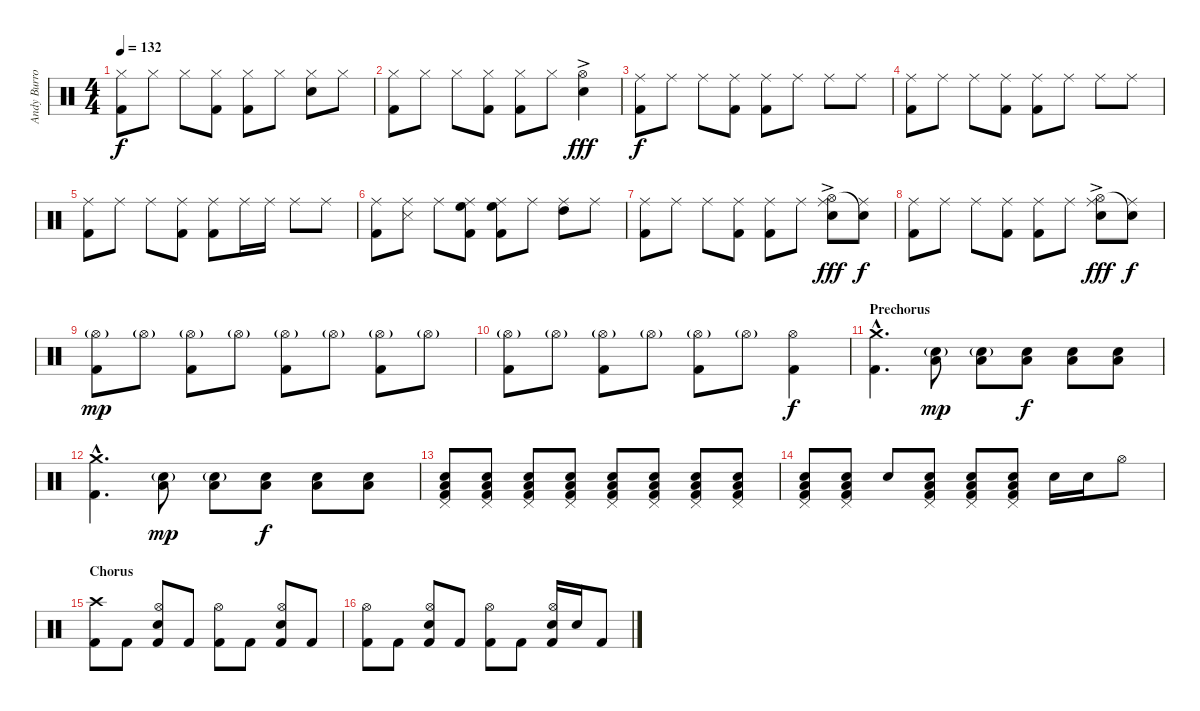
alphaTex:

\track ("Andy Burrows" "Andy Burro") {instrument percussion}
\staff {score}
\articulation defaults
\ts (4 4)
\tempo 132
\clef neutral
\ks c
("Hi-Hat (closed)" "Kick (hit) 2").8{dy f} "Hi-Hat (closed)".8 "Hi-Hat (closed)".8 ("Hi-Hat (closed)" "Kick (hit) 2").8 ("Hi-Hat (closed)" "Kick (hit) 2").8 "Hi-Hat (closed)".8 ("Hi-Hat (closed)" "Electric Snare (hit)").8 "Hi-Hat (closed)".8 |
("Hi-Hat (closed)" "Kick (hit) 2").8 "Hi-Hat (closed)".8 "Hi-Hat (closed)".8 ("Hi-Hat (closed)" "Kick (hit) 2").8 ("Hi-Hat (closed)" "Kick (hit) 2").8 "Hi-Hat (closed)".8 ("Hi-Hat (open)"{ac} "Snare (hit) 2"{ac}).4{dy fff} |
("Ride (middle)" "Kick (hit) 2").8{dy f} "Ride (middle)".8 "Ride (middle)".8 ("Ride (middle)" "Kick (hit) 2").8 ("Ride (middle)" "Kick (hit) 2").8 "Ride (middle)".8 "Ride (middle)".8 "Ride (middle)".8 |
("Ride (middle)" "Kick (hit) 2").8 "Ride (middle)".8 "Ride (middle)".8 ("Ride (middle)" "Kick (hit) 2").8 ("Ride (middle)" "Kick (hit) 2").8 "Ride (middle)".8 "Ride (middle)".8 "Ride (middle)".8 |
("Ride (middle)" "Kick (hit) 2").8 "Ride (middle)".8 "Ride (middle)".8 ("Ride (middle)" "Kick (hit) 2").8 ("Ride (middle)" "Kick (hit) 2").8 "Ride (middle)".16 "Ride (middle)".16 "Ride (middle)".8 "Ride (middle)".8 |
("Ride (middle)" "Kick (hit) 2").8 ("Ride (middle)" "Snare (side stick) 3").8 "Ride (middle)".8 ("Ride (middle)" "High Floor Tom (hit)" "Kick (hit) 2").8 ("Ride (middle)" "High Floor Tom (hit)" "Kick (hit) 2").8 "Ride (middle)".8 ("Ride (middle)" "High Tom (hit)").8 "Ride (middle)".8 |
("Ride (middle)" "Kick (hit) 2").8 "Ride (middle)".8 "Ride (middle)".8 ("Ride (middle)" "Kick (hit) 2").8 ("Ride (middle)" "Kick (hit) 2").8 "Ride (middle)".8 ("Hi-Hat (open)"{ac} "Ride (middle)" "Snare (hit) 2"{ac}).8{dy fff} ("Snare (hit)"{t} "Ride (middle)").8{dy f} |
("Ride (middle)" "Kick (hit) 2").8 "Ride (middle)".8 "Ride (middle)".8 ("Ride (middle)" "Kick (hit) 2").8 ("Ride (middle)" "Kick (hit) 2").8 "Ride (middle)".8 ("Hi-Hat (open)"{ac} "Ride (middle)" "Snare (hit) 2"{ac}).8{dy fff} ("Snare (hit)"{t} "Ride (middle)").8{dy f} |
("Hi-Hat (open)"{g} "Kick (hit) 2").8{dy mp volume 8} "Hi-Hat (open)"{g}.8 ("Hi-Hat (open)"{g} "Kick (hit) 2").8{volume 11} "Hi-Hat (open)"{g}.8 ("Hi-Hat (open)"{g} "Kick (hit) 2").8 "Hi-Hat (open)"{g}.8 ("Hi-Hat (open)"{g} "Kick (hit) 2").8 "Hi-Hat (open)"{g}.8 |
("Hi-Hat (open)"{g} "Kick (hit) 2").8 "Hi-Hat (open)"{g}.8 ("Hi-Hat (open)"{g} "Kick (hit) 2").8 "Hi-Hat (open)"{g}.8 ("Hi-Hat (open)"{g} "Kick (hit) 2").8 "Hi-Hat (open)"{g}.8 ("Hi-Hat (open)" "Kick (hit) 2").4{dy f} |
\section ("" "Prechorus")
("Crash medium (hit)"{hac} "Kick (hit) 2"{hac}).4{d} ("Snare (hit) 2"{g} "Low Floor Tom (hit)").8{dy mp} ("Snare (hit) 2"{g} "Low Floor Tom (hit)").8 ("Snare (hit) 2" "Low Floor Tom (hit)").8{dy f} ("Snare (hit) 2" "Low Floor Tom (hit)").8 ("Snare (hit) 2" "Low Floor Tom (hit)").8 |
("Crash medium (hit)"{hac} "Kick (hit) 2"{hac}).4{d} ("Snare (hit) 2"{g} "Low Floor Tom (hit)").8{dy mp} ("Snare (hit) 2"{g} "Low Floor Tom (hit)").8 ("Snare (hit) 2" "Low Floor Tom (hit)").8{dy f} ("Snare (hit) 2" "Low Floor Tom (hit)").8 ("Snare (hit) 2" "Low Floor Tom (hit)").8 |
("Snare (hit) 2" "Low Floor Tom (hit)" "Pedal Hi-Hat (hit)" "Kick (hit) 2").8{volume 8} ("Snare (hit) 2" "Low Floor Tom (hit)" "Pedal Hi-Hat (hit)" "Kick (hit) 2").8 ("Snare (hit) 2" "Low Floor Tom (hit)" "Pedal Hi-Hat (hit)" "Kick (hit) 2").8{volume 11} ("Snare (hit) 2" "Low Floor Tom (hit)" "Pedal Hi-Hat (hit)" "Kick (hit) 2").8 ("Snare (hit) 2" "Low Floor Tom (hit)" "Pedal Hi-Hat (hit)" "Kick (hit) 2").8 ("Snare (hit) 2" "Low Floor Tom (hit)" "Pedal Hi-Hat (hit)" "Kick (hit) 2").8 ("Snare (hit) 2" "Low Floor Tom (hit)" "Pedal Hi-Hat (hit)" "Kick (hit) 2").8 ("Snare (hit) 2" "Low Floor Tom (hit)" "Pedal Hi-Hat (hit)" "Kick (hit) 2").8 |
("Snare (hit) 2" "Low Floor Tom (hit)" "Pedal Hi-Hat (hit)" "Kick (hit) 2").8 ("Snare (hit) 2" "Low Floor Tom (hit)" "Pedal Hi-Hat (hit)" "Kick (hit) 2").8 "Snare (hit) 2".8 ("Snare (hit) 2" "Low Floor Tom (hit)" "Pedal Hi-Hat (hit)" "Kick (hit) 2").8 ("Snare (hit) 2" "Low Floor Tom (hit)" "Pedal Hi-Hat (hit)" "Kick (hit) 2").8 ("Snare (hit) 2" "Low Floor Tom (hit)" "Pedal Hi-Hat (hit)" "Kick (hit) 2").8 "Snare (hit) 2".16 "Snare (hit) 2".16 "Hi-Hat (open)".8 |
\section ("" "Chorus")
("Crash high (hit)" "Kick (hit) 2").8{volume 16} "Kick (hit) 2".8 ("Hi-Hat (open)" "Snare (hit) 2" "Kick (hit) 2").8 "Kick (hit) 2".8 ("Hi-Hat (open)" "Kick (hit) 2").8 "Kick (hit) 2".8 ("Hi-Hat (open)" "Snare (hit) 2" "Kick (hit) 2").8 "Kick (hit) 2".8 |
("Hi-Hat (open)" "Kick (hit) 2").8 "Kick (hit) 2".8 ("Hi-Hat (open)" "Snare (hit) 2" "Kick (hit) 2").8 "Kick (hit) 2".8 ("Hi-Hat (open)" "Kick (hit) 2").8 "Kick (hit) 2".8 ("Hi-Hat (open)" "Snare (hit) 2" "Kick (hit) 2").16 "Snare (hit) 2".16 "Kick (hit) 2".8
